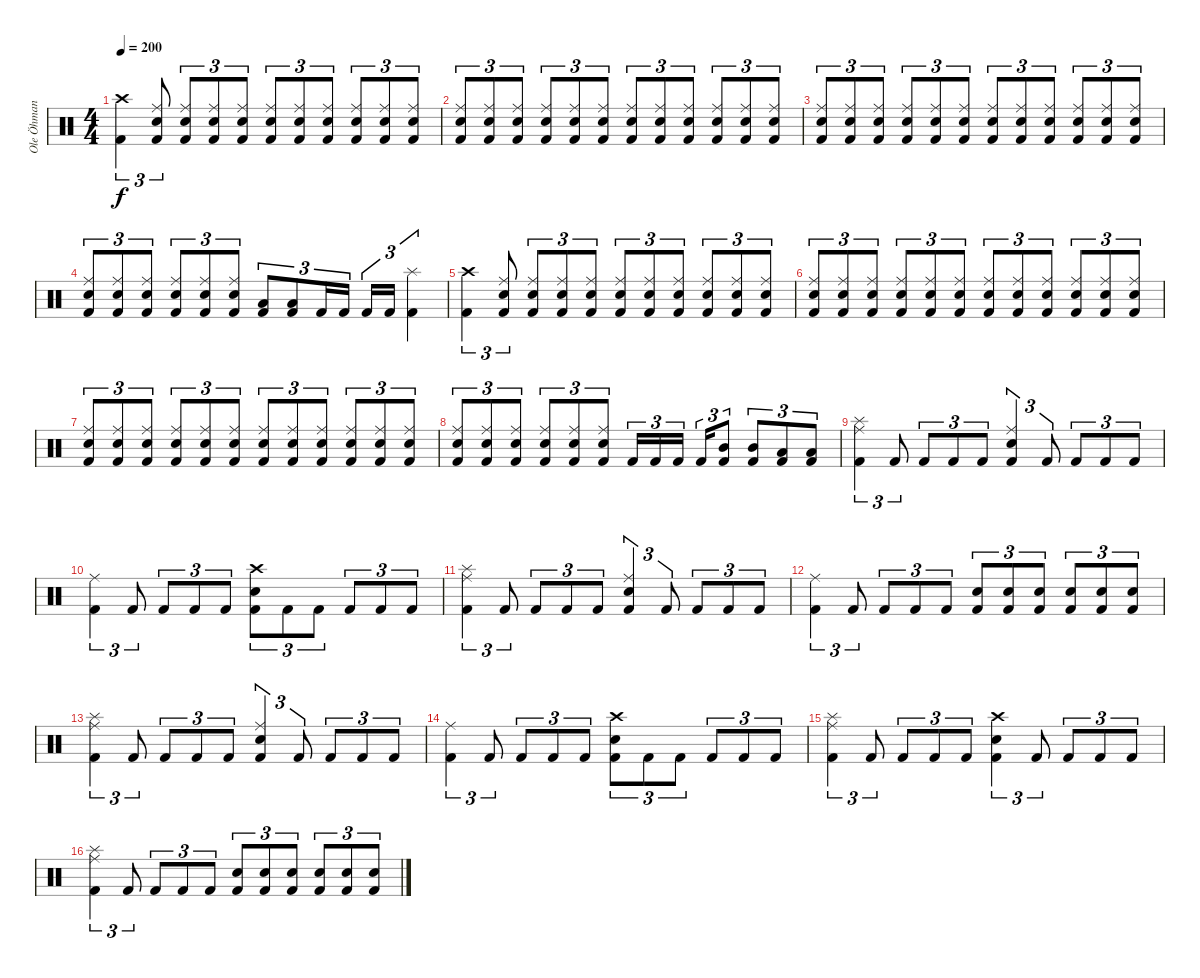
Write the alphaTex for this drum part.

\track ("Ole Öhman" "Ole Öhman") {instrument percussion}
\staff {score}
\articulation defaults
\ts (4 4)
\tempo 200
\clef neutral
\ks c
("Crash high (hit)" "Kick (hit) 2").4{tu (3 2) dy f} ("Ride (middle)" "Snare (hit) 2" "Kick (hit) 2").8{tu (3 2)} ("Ride (middle)" "Snare (hit) 2" "Kick (hit) 2").8{tu (3 2)} ("Ride (middle)" "Snare (hit) 2" "Kick (hit) 2").8{tu (3 2)} ("Ride (middle)" "Snare (hit) 2" "Kick (hit) 2").8{tu (3 2)} ("Ride (middle)" "Snare (hit) 2" "Kick (hit) 2").8{tu (3 2)} ("Ride (middle)" "Snare (hit) 2" "Kick (hit) 2").8{tu (3 2)} ("Ride (middle)" "Snare (hit) 2" "Kick (hit) 2").8{tu (3 2)} ("Ride (middle)" "Snare (hit) 2" "Kick (hit) 2").8{tu (3 2)} ("Ride (middle)" "Snare (hit) 2" "Kick (hit) 2").8{tu (3 2)} ("Ride (middle)" "Snare (hit) 2" "Kick (hit) 2").8{tu (3 2)} |
("Ride (middle)" "Snare (hit) 2" "Kick (hit) 2").8{tu (3 2)} ("Ride (middle)" "Snare (hit) 2" "Kick (hit) 2").8{tu (3 2)} ("Ride (middle)" "Snare (hit) 2" "Kick (hit) 2").8{tu (3 2)} ("Ride (middle)" "Snare (hit) 2" "Kick (hit) 2").8{tu (3 2)} ("Ride (middle)" "Snare (hit) 2" "Kick (hit) 2").8{tu (3 2)} ("Ride (middle)" "Snare (hit) 2" "Kick (hit) 2").8{tu (3 2)} ("Ride (middle)" "Snare (hit) 2" "Kick (hit) 2").8{tu (3 2)} ("Ride (middle)" "Snare (hit) 2" "Kick (hit) 2").8{tu (3 2)} ("Ride (middle)" "Snare (hit) 2" "Kick (hit) 2").8{tu (3 2)} ("Ride (middle)" "Snare (hit) 2" "Kick (hit) 2").8{tu (3 2)} ("Ride (middle)" "Snare (hit) 2" "Kick (hit) 2").8{tu (3 2)} ("Ride (middle)" "Snare (hit) 2" "Kick (hit) 2").8{tu (3 2)} |
("Ride (middle)" "Snare (hit) 2" "Kick (hit) 2").8{tu (3 2)} ("Ride (middle)" "Snare (hit) 2" "Kick (hit) 2").8{tu (3 2)} ("Ride (middle)" "Snare (hit) 2" "Kick (hit) 2").8{tu (3 2)} ("Ride (middle)" "Snare (hit) 2" "Kick (hit) 2").8{tu (3 2)} ("Ride (middle)" "Snare (hit) 2" "Kick (hit) 2").8{tu (3 2)} ("Ride (middle)" "Snare (hit) 2" "Kick (hit) 2").8{tu (3 2)} ("Ride (middle)" "Snare (hit) 2" "Kick (hit) 2").8{tu (3 2)} ("Ride (middle)" "Snare (hit) 2" "Kick (hit) 2").8{tu (3 2)} ("Ride (middle)" "Snare (hit) 2" "Kick (hit) 2").8{tu (3 2)} ("Ride (middle)" "Snare (hit) 2" "Kick (hit) 2").8{tu (3 2)} ("Ride (middle)" "Snare (hit) 2" "Kick (hit) 2").8{tu (3 2)} ("Ride (middle)" "Snare (hit) 2" "Kick (hit) 2").8{tu (3 2)} |
("Ride (middle)" "Snare (hit) 2" "Kick (hit) 2").8{tu (3 2)} ("Ride (middle)" "Snare (hit) 2" "Kick (hit) 2").8{tu (3 2)} ("Ride (middle)" "Snare (hit) 2" "Kick (hit) 2").8{tu (3 2)} ("Ride (middle)" "Snare (hit) 2" "Kick (hit) 2").8{tu (3 2)} ("Ride (middle)" "Snare (hit) 2" "Kick (hit) 2").8{tu (3 2)} ("Ride (middle)" "Snare (hit) 2" "Kick (hit) 2").8{tu (3 2)} ("Low Floor Tom (hit)" "Kick (hit) 2").8{tu (3 2)} ("Low Floor Tom (hit)" "Kick (hit) 2").8{tu (3 2)} "Kick (hit) 2".16{tu (3 2)} "Kick (hit) 2".16{tu (3 2)} "Kick (hit) 2".16{tu (3 2)} "Kick (hit) 2".16{tu (3 2)} ("Splash (hit)" "Kick (hit) 2").4{tu (3 2)} |
("Crash high (hit)" "Kick (hit) 2").4{tu (3 2)} ("Ride (middle)" "Snare (hit) 2" "Kick (hit) 2").8{tu (3 2)} ("Ride (middle)" "Snare (hit) 2" "Kick (hit) 2").8{tu (3 2)} ("Ride (middle)" "Snare (hit) 2" "Kick (hit) 2").8{tu (3 2)} ("Ride (middle)" "Snare (hit) 2" "Kick (hit) 2").8{tu (3 2)} ("Ride (middle)" "Snare (hit) 2" "Kick (hit) 2").8{tu (3 2)} ("Ride (middle)" "Snare (hit) 2" "Kick (hit) 2").8{tu (3 2)} ("Ride (middle)" "Snare (hit) 2" "Kick (hit) 2").8{tu (3 2)} ("Ride (middle)" "Snare (hit) 2" "Kick (hit) 2").8{tu (3 2)} ("Ride (middle)" "Snare (hit) 2" "Kick (hit) 2").8{tu (3 2)} ("Ride (middle)" "Snare (hit) 2" "Kick (hit) 2").8{tu (3 2)} |
("Ride (middle)" "Snare (hit) 2" "Kick (hit) 2").8{tu (3 2)} ("Ride (middle)" "Snare (hit) 2" "Kick (hit) 2").8{tu (3 2)} ("Ride (middle)" "Snare (hit) 2" "Kick (hit) 2").8{tu (3 2)} ("Ride (middle)" "Snare (hit) 2" "Kick (hit) 2").8{tu (3 2)} ("Ride (middle)" "Snare (hit) 2" "Kick (hit) 2").8{tu (3 2)} ("Ride (middle)" "Snare (hit) 2" "Kick (hit) 2").8{tu (3 2)} ("Ride (middle)" "Snare (hit) 2" "Kick (hit) 2").8{tu (3 2)} ("Ride (middle)" "Snare (hit) 2" "Kick (hit) 2").8{tu (3 2)} ("Ride (middle)" "Snare (hit) 2" "Kick (hit) 2").8{tu (3 2)} ("Ride (middle)" "Snare (hit) 2" "Kick (hit) 2").8{tu (3 2)} ("Ride (middle)" "Snare (hit) 2" "Kick (hit) 2").8{tu (3 2)} ("Ride (middle)" "Snare (hit) 2" "Kick (hit) 2").8{tu (3 2)} |
("Ride (middle)" "Snare (hit) 2" "Kick (hit) 2").8{tu (3 2)} ("Ride (middle)" "Snare (hit) 2" "Kick (hit) 2").8{tu (3 2)} ("Ride (middle)" "Snare (hit) 2" "Kick (hit) 2").8{tu (3 2)} ("Ride (middle)" "Snare (hit) 2" "Kick (hit) 2").8{tu (3 2)} ("Ride (middle)" "Snare (hit) 2" "Kick (hit) 2").8{tu (3 2)} ("Ride (middle)" "Snare (hit) 2" "Kick (hit) 2").8{tu (3 2)} ("Ride (middle)" "Snare (hit) 2" "Kick (hit) 2").8{tu (3 2)} ("Ride (middle)" "Snare (hit) 2" "Kick (hit) 2").8{tu (3 2)} ("Ride (middle)" "Snare (hit) 2" "Kick (hit) 2").8{tu (3 2)} ("Ride (middle)" "Snare (hit) 2" "Kick (hit) 2").8{tu (3 2)} ("Ride (middle)" "Snare (hit) 2" "Kick (hit) 2").8{tu (3 2)} ("Ride (middle)" "Snare (hit) 2" "Kick (hit) 2").8{tu (3 2)} |
("Ride (middle)" "Snare (hit) 2" "Kick (hit) 2").8{tu (3 2)} ("Ride (middle)" "Snare (hit) 2" "Kick (hit) 2").8{tu (3 2)} ("Ride (middle)" "Snare (hit) 2" "Kick (hit) 2").8{tu (3 2)} ("Ride (middle)" "Snare (hit) 2" "Kick (hit) 2").8{tu (3 2)} ("Ride (middle)" "Snare (hit) 2" "Kick (hit) 2").8{tu (3 2)} ("Ride (middle)" "Snare (hit) 2" "Kick (hit) 2").8{tu (3 2)} "Kick (hit) 2".16{tu (3 2)} "Kick (hit) 2".16{tu (3 2)} "Kick (hit) 2".16{tu (3 2)} "Kick (hit) 2".16{tu (3 2)} ("Mid Tom (hit)" "Kick (hit) 2").8{tu (3 2)} ("Mid Tom (hit)" "Kick (hit) 2").8{tu (3 2)} ("Low Tom (hit)" "Kick (hit) 2").8{tu (3 2)} ("Low Tom (hit)" "Kick (hit) 2").8{tu (3 2)} |
("Splash (hit)" "Ride (middle)" "Kick (hit) 2").4{tu (3 2)} "Kick (hit) 2".8{tu (3 2)} "Kick (hit) 2".8{tu (3 2)} "Kick (hit) 2".8{tu (3 2)} "Kick (hit) 2".8{tu (3 2)} ("Ride (middle)" "Snare (hit) 2" "Kick (hit) 2").4{tu (3 2)} "Kick (hit) 2".8{tu (3 2)} "Kick (hit) 2".8{tu (3 2)} "Kick (hit) 2".8{tu (3 2)} "Kick (hit) 2".8{tu (3 2)} |
("Ride (middle)" "Kick (hit) 2").4{tu (3 2)} "Kick (hit) 2".8{tu (3 2)} "Kick (hit) 2".8{tu (3 2)} "Kick (hit) 2".8{tu (3 2)} "Kick (hit) 2".8{tu (3 2)} ("Crash high (hit)" "Snare (hit) 2" "Kick (hit) 2").8{tu (3 2)} "Kick (hit) 2".8{tu (3 2)} "Kick (hit) 2".8{tu (3 2)} "Kick (hit) 2".8{tu (3 2)} "Kick (hit) 2".8{tu (3 2)} "Kick (hit) 2".8{tu (3 2)} |
("Splash (hit)" "Ride (middle)" "Kick (hit) 2").4{tu (3 2)} "Kick (hit) 2".8{tu (3 2)} "Kick (hit) 2".8{tu (3 2)} "Kick (hit) 2".8{tu (3 2)} "Kick (hit) 2".8{tu (3 2)} ("Ride (middle)" "Snare (hit) 2" "Kick (hit) 2").4{tu (3 2)} "Kick (hit) 2".8{tu (3 2)} "Kick (hit) 2".8{tu (3 2)} "Kick (hit) 2".8{tu (3 2)} "Kick (hit) 2".8{tu (3 2)} |
("Ride (middle)" "Kick (hit) 2").4{tu (3 2)} "Kick (hit) 2".8{tu (3 2)} "Kick (hit) 2".8{tu (3 2)} "Kick (hit) 2".8{tu (3 2)} "Kick (hit) 2".8{tu (3 2)} ("Snare (hit) 2" "Kick (hit) 2").8{tu (3 2)} ("Snare (hit) 2" "Kick (hit) 2").8{tu (3 2)} ("Snare (hit) 2" "Kick (hit) 2").8{tu (3 2)} ("Snare (hit) 2" "Kick (hit) 2").8{tu (3 2)} ("Snare (hit) 2" "Kick (hit) 2").8{tu (3 2)} ("Snare (hit) 2" "Kick (hit) 2").8{tu (3 2)} |
("Splash (hit)" "Ride (middle)" "Kick (hit) 2").4{tu (3 2)} "Kick (hit) 2".8{tu (3 2)} "Kick (hit) 2".8{tu (3 2)} "Kick (hit) 2".8{tu (3 2)} "Kick (hit) 2".8{tu (3 2)} ("Ride (middle)" "Snare (hit) 2" "Kick (hit) 2").4{tu (3 2)} "Kick (hit) 2".8{tu (3 2)} "Kick (hit) 2".8{tu (3 2)} "Kick (hit) 2".8{tu (3 2)} "Kick (hit) 2".8{tu (3 2)} |
("Ride (middle)" "Kick (hit) 2").4{tu (3 2)} "Kick (hit) 2".8{tu (3 2)} "Kick (hit) 2".8{tu (3 2)} "Kick (hit) 2".8{tu (3 2)} "Kick (hit) 2".8{tu (3 2)} ("Crash high (hit)" "Snare (hit) 2" "Kick (hit) 2").8{tu (3 2)} "Kick (hit) 2".8{tu (3 2)} "Kick (hit) 2".8{tu (3 2)} "Kick (hit) 2".8{tu (3 2)} "Kick (hit) 2".8{tu (3 2)} "Kick (hit) 2".8{tu (3 2)} |
("Splash (hit)" "Ride (middle)" "Kick (hit) 2").4{tu (3 2)} "Kick (hit) 2".8{tu (3 2)} "Kick (hit) 2".8{tu (3 2)} "Kick (hit) 2".8{tu (3 2)} "Kick (hit) 2".8{tu (3 2)} ("Crash high (hit)" "Snare (hit) 2" "Kick (hit) 2").4{tu (3 2)} "Kick (hit) 2".8{tu (3 2)} "Kick (hit) 2".8{tu (3 2)} "Kick (hit) 2".8{tu (3 2)} "Kick (hit) 2".8{tu (3 2)} |
("Splash (hit)" "Ride (middle)" "Kick (hit) 2").4{tu (3 2)} "Kick (hit) 2".8{tu (3 2)} "Kick (hit) 2".8{tu (3 2)} "Kick (hit) 2".8{tu (3 2)} "Kick (hit) 2".8{tu (3 2)} ("Snare (hit) 2" "Kick (hit) 2").8{tu (3 2)} ("Snare (hit) 2" "Kick (hit) 2").8{tu (3 2)} ("Snare (hit) 2" "Kick (hit) 2").8{tu (3 2)} ("Snare (hit) 2" "Kick (hit) 2").8{tu (3 2)} ("Snare (hit) 2" "Kick (hit) 2").8{tu (3 2)} ("Snare (hit) 2" "Kick (hit) 2").8{tu (3 2)}
